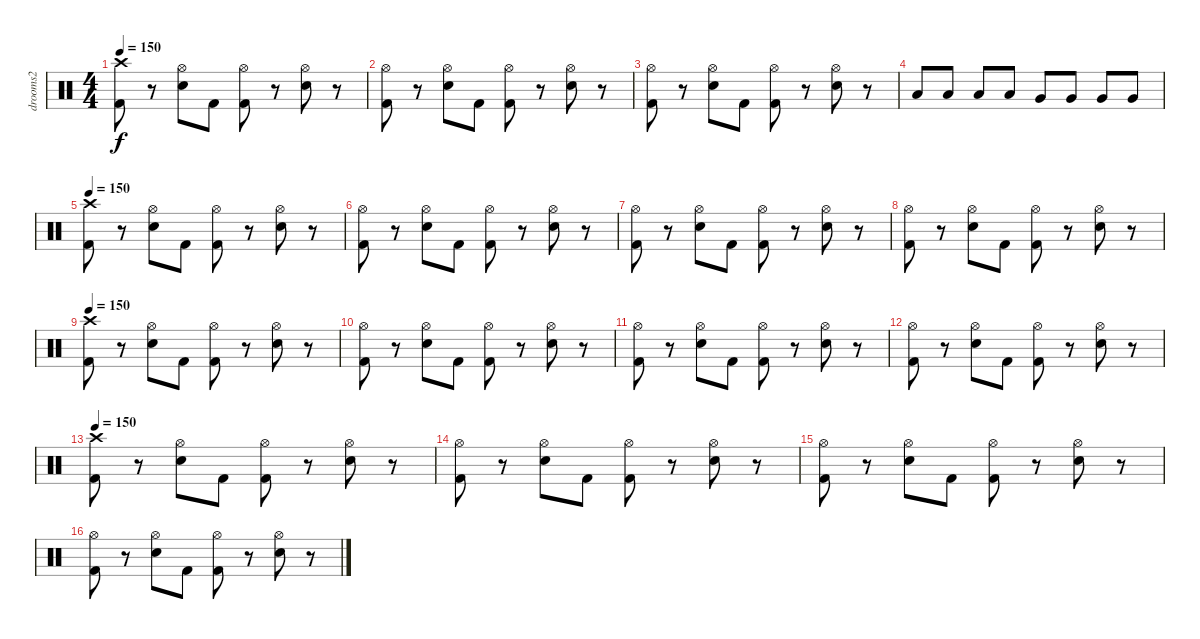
\track ("drooms2" "drooms2") {instrument percussion}
\staff {score}
\articulation defaults
\ts (4 4)
\tempo 150
\clef neutral
\ks c
("Kick (hit) 2" "Crash high (hit)").8{dy f} r.8 ("Hi-Hat (open)" "Snare (hit) 2").8 "Kick (hit) 2".8 ("Hi-Hat (open)" "Kick (hit) 2").8 r.8 ("Hi-Hat (open)" "Snare (hit) 2").8 r.8 |
("Kick (hit) 2" "Hi-Hat (open)").8 r.8 ("Snare (hit) 2" "Hi-Hat (open)").8 "Kick (hit) 2".8 ("Kick (hit) 2" "Hi-Hat (open)").8 r.8 ("Snare (hit) 2" "Hi-Hat (open)").8 r.8 |
("Kick (hit) 2" "Hi-Hat (open)").8 r.8 ("Snare (hit) 2" "Hi-Hat (open)").8 "Kick (hit) 2".8 ("Kick (hit) 2" "Hi-Hat (open)").8 r.8 ("Snare (hit) 2" "Hi-Hat (open)").8 r.8 |
"Low Tom (hit)".8 "Low Tom (hit)".8 "Low Tom (hit)".8 "Low Tom (hit)".8 "Very Low Tom (hit)".8 "Very Low Tom (hit)".8 "Very Low Tom (hit)".8 "Very Low Tom (hit)".8 |
\tempo 150
("Kick (hit) 2" "Crash high (hit)").8 r.8 ("Hi-Hat (open)" "Snare (hit) 2").8 "Kick (hit) 2".8 ("Hi-Hat (open)" "Kick (hit) 2").8 r.8 ("Hi-Hat (open)" "Snare (hit) 2").8 r.8 |
("Kick (hit) 2" "Hi-Hat (open)").8 r.8 ("Snare (hit) 2" "Hi-Hat (open)").8 "Kick (hit) 2".8 ("Kick (hit) 2" "Hi-Hat (open)").8 r.8 ("Snare (hit) 2" "Hi-Hat (open)").8 r.8 |
("Kick (hit) 2" "Hi-Hat (open)").8 r.8 ("Snare (hit) 2" "Hi-Hat (open)").8 "Kick (hit) 2".8 ("Kick (hit) 2" "Hi-Hat (open)").8 r.8 ("Snare (hit) 2" "Hi-Hat (open)").8 r.8 |
("Kick (hit) 2" "Hi-Hat (open)").8 r.8 ("Snare (hit) 2" "Hi-Hat (open)").8 "Kick (hit) 2".8 ("Kick (hit) 2" "Hi-Hat (open)").8 r.8 ("Snare (hit) 2" "Hi-Hat (open)").8 r.8 |
\tempo 150
("Kick (hit) 2" "Crash high (hit)").8 r.8 ("Hi-Hat (open)" "Snare (hit) 2").8 "Kick (hit) 2".8 ("Hi-Hat (open)" "Kick (hit) 2").8 r.8 ("Hi-Hat (open)" "Snare (hit) 2").8 r.8 |
("Kick (hit) 2" "Hi-Hat (open)").8 r.8 ("Snare (hit) 2" "Hi-Hat (open)").8 "Kick (hit) 2".8 ("Kick (hit) 2" "Hi-Hat (open)").8 r.8 ("Snare (hit) 2" "Hi-Hat (open)").8 r.8 |
("Kick (hit) 2" "Hi-Hat (open)").8 r.8 ("Snare (hit) 2" "Hi-Hat (open)").8 "Kick (hit) 2".8 ("Kick (hit) 2" "Hi-Hat (open)").8 r.8 ("Snare (hit) 2" "Hi-Hat (open)").8 r.8 |
("Kick (hit) 2" "Hi-Hat (open)").8 r.8 ("Snare (hit) 2" "Hi-Hat (open)").8 "Kick (hit) 2".8 ("Kick (hit) 2" "Hi-Hat (open)").8 r.8 ("Snare (hit) 2" "Hi-Hat (open)").8 r.8 |
\tempo 150
("Kick (hit) 2" "Crash high (hit)").8 r.8 ("Hi-Hat (open)" "Snare (hit) 2").8 "Kick (hit) 2".8 ("Hi-Hat (open)" "Kick (hit) 2").8 r.8 ("Hi-Hat (open)" "Snare (hit) 2").8 r.8 |
("Kick (hit) 2" "Hi-Hat (open)").8 r.8 ("Snare (hit) 2" "Hi-Hat (open)").8 "Kick (hit) 2".8 ("Kick (hit) 2" "Hi-Hat (open)").8 r.8 ("Snare (hit) 2" "Hi-Hat (open)").8 r.8 |
("Kick (hit) 2" "Hi-Hat (open)").8 r.8 ("Snare (hit) 2" "Hi-Hat (open)").8 "Kick (hit) 2".8 ("Kick (hit) 2" "Hi-Hat (open)").8 r.8 ("Snare (hit) 2" "Hi-Hat (open)").8 r.8 |
("Kick (hit) 2" "Hi-Hat (open)").8 r.8 ("Snare (hit) 2" "Hi-Hat (open)").8 "Kick (hit) 2".8 ("Kick (hit) 2" "Hi-Hat (open)").8 r.8 ("Snare (hit) 2" "Hi-Hat (open)").8 r.8
